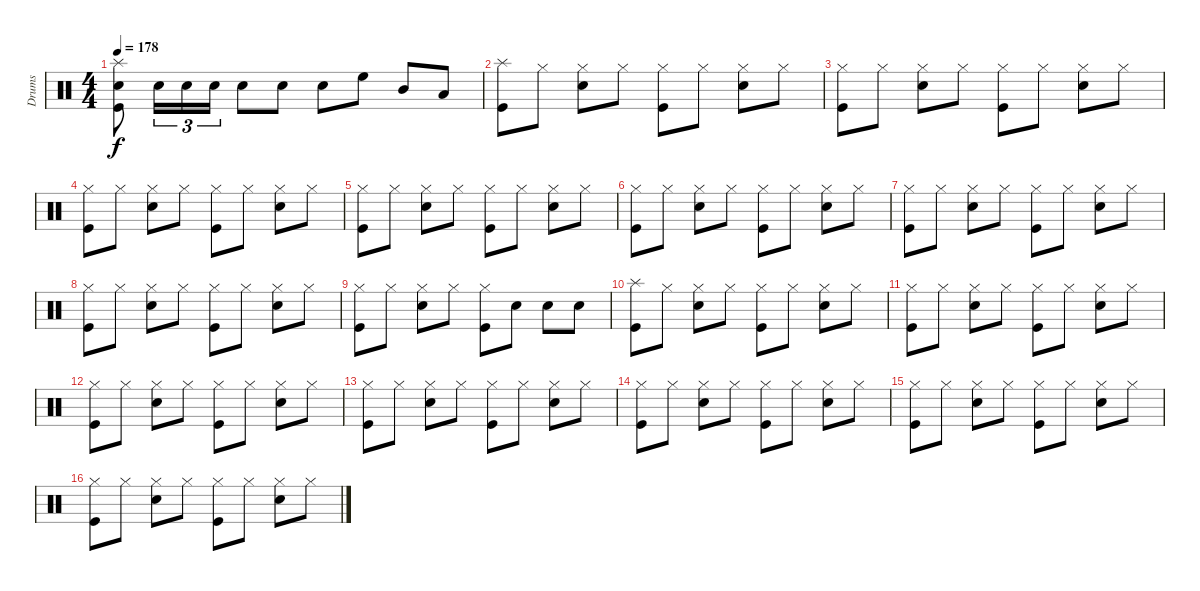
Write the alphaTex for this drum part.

\track ("Drums" "Drums") {instrument percussion}
\staff {score}
\articulation defaults
\ts (4 4)
\tempo 178
\clef neutral
\ks c
("Splash (hit)" "Electric Snare (hit)" "Kick (hit)").8{dy f} "Electric Snare (hit)".16{tu (3 2)} "Electric Snare (hit)".16{tu (3 2)} "Electric Snare (hit)".16{tu (3 2)} "Electric Snare (hit)".8 "Electric Snare (hit)".8 "Electric Snare (hit)".8 "High Floor Tom (hit)".8 "Mid Tom (hit)".8 "Low Tom (hit)".8 |
("Splash (hit)" "Kick (hit)").8 "Hi-Hat (closed)".8 ("Hi-Hat (closed)" "Electric Snare (hit)").8 "Hi-Hat (closed)".8 ("Hi-Hat (closed)" "Kick (hit)").8 "Hi-Hat (closed)".8 ("Hi-Hat (closed)" "Electric Snare (hit)").8 "Hi-Hat (closed)".8 |
("Hi-Hat (closed)" "Kick (hit)").8 "Hi-Hat (closed)".8 ("Hi-Hat (closed)" "Electric Snare (hit)").8 "Hi-Hat (closed)".8 ("Hi-Hat (closed)" "Kick (hit)").8 "Hi-Hat (closed)".8 ("Hi-Hat (closed)" "Electric Snare (hit)").8 "Hi-Hat (closed)".8 |
("Hi-Hat (closed)" "Kick (hit)").8 "Hi-Hat (closed)".8 ("Hi-Hat (closed)" "Electric Snare (hit)").8 "Hi-Hat (closed)".8 ("Hi-Hat (closed)" "Kick (hit)").8 "Hi-Hat (closed)".8 ("Hi-Hat (closed)" "Electric Snare (hit)").8 "Hi-Hat (closed)".8 |
("Hi-Hat (closed)" "Kick (hit)").8 "Hi-Hat (closed)".8 ("Hi-Hat (closed)" "Electric Snare (hit)").8 "Hi-Hat (closed)".8 ("Hi-Hat (closed)" "Kick (hit)").8 "Hi-Hat (closed)".8 ("Hi-Hat (closed)" "Electric Snare (hit)").8 "Hi-Hat (closed)".8 |
("Hi-Hat (closed)" "Kick (hit)").8 "Hi-Hat (closed)".8 ("Hi-Hat (closed)" "Electric Snare (hit)").8 "Hi-Hat (closed)".8 ("Hi-Hat (closed)" "Kick (hit)").8 "Hi-Hat (closed)".8 ("Hi-Hat (closed)" "Electric Snare (hit)").8 "Hi-Hat (closed)".8 |
("Hi-Hat (closed)" "Kick (hit)").8 "Hi-Hat (closed)".8 ("Hi-Hat (closed)" "Electric Snare (hit)").8 "Hi-Hat (closed)".8 ("Hi-Hat (closed)" "Kick (hit)").8 "Hi-Hat (closed)".8 ("Hi-Hat (closed)" "Electric Snare (hit)").8 "Hi-Hat (closed)".8 |
("Hi-Hat (closed)" "Kick (hit)").8 "Hi-Hat (closed)".8 ("Hi-Hat (closed)" "Electric Snare (hit)").8 "Hi-Hat (closed)".8 ("Hi-Hat (closed)" "Kick (hit)").8 "Hi-Hat (closed)".8 ("Hi-Hat (closed)" "Electric Snare (hit)").8 "Hi-Hat (closed)".8 |
("Hi-Hat (closed)" "Kick (hit)").8 "Hi-Hat (closed)".8 ("Hi-Hat (closed)" "Electric Snare (hit)").8 "Hi-Hat (closed)".8 ("Hi-Hat (closed)" "Kick (hit)").8 "Electric Snare (hit)".8 "Electric Snare (hit)".8 "Electric Snare (hit)".8 |
("Splash (hit)" "Kick (hit)").8 "Hi-Hat (closed)".8 ("Hi-Hat (closed)" "Electric Snare (hit)").8 "Hi-Hat (closed)".8 ("Hi-Hat (closed)" "Kick (hit)").8 "Hi-Hat (closed)".8 ("Hi-Hat (closed)" "Electric Snare (hit)").8 "Hi-Hat (closed)".8 |
("Hi-Hat (closed)" "Kick (hit)").8 "Hi-Hat (closed)".8 ("Hi-Hat (closed)" "Electric Snare (hit)").8 "Hi-Hat (closed)".8 ("Hi-Hat (closed)" "Kick (hit)").8 "Hi-Hat (closed)".8 ("Hi-Hat (closed)" "Electric Snare (hit)").8 "Hi-Hat (closed)".8 |
("Hi-Hat (closed)" "Kick (hit)").8 "Hi-Hat (closed)".8 ("Hi-Hat (closed)" "Electric Snare (hit)").8 "Hi-Hat (closed)".8 ("Hi-Hat (closed)" "Kick (hit)").8 "Hi-Hat (closed)".8 ("Hi-Hat (closed)" "Electric Snare (hit)").8 "Hi-Hat (closed)".8 |
("Hi-Hat (closed)" "Kick (hit)").8 "Hi-Hat (closed)".8 ("Hi-Hat (closed)" "Electric Snare (hit)").8 "Hi-Hat (closed)".8 ("Hi-Hat (closed)" "Kick (hit)").8 "Hi-Hat (closed)".8 ("Hi-Hat (closed)" "Electric Snare (hit)").8 "Hi-Hat (closed)".8 |
("Hi-Hat (closed)" "Kick (hit)").8 "Hi-Hat (closed)".8 ("Hi-Hat (closed)" "Electric Snare (hit)").8 "Hi-Hat (closed)".8 ("Hi-Hat (closed)" "Kick (hit)").8 "Hi-Hat (closed)".8 ("Hi-Hat (closed)" "Electric Snare (hit)").8 "Hi-Hat (closed)".8 |
("Hi-Hat (closed)" "Kick (hit)").8 "Hi-Hat (closed)".8 ("Hi-Hat (closed)" "Electric Snare (hit)").8 "Hi-Hat (closed)".8 ("Hi-Hat (closed)" "Kick (hit)").8 "Hi-Hat (closed)".8 ("Hi-Hat (closed)" "Electric Snare (hit)").8 "Hi-Hat (closed)".8 |
("Hi-Hat (closed)" "Kick (hit)").8 "Hi-Hat (closed)".8 ("Hi-Hat (closed)" "Electric Snare (hit)").8 "Hi-Hat (closed)".8 ("Hi-Hat (closed)" "Kick (hit)").8 "Hi-Hat (closed)".8 ("Hi-Hat (closed)" "Electric Snare (hit)").8 "Hi-Hat (closed)".8
